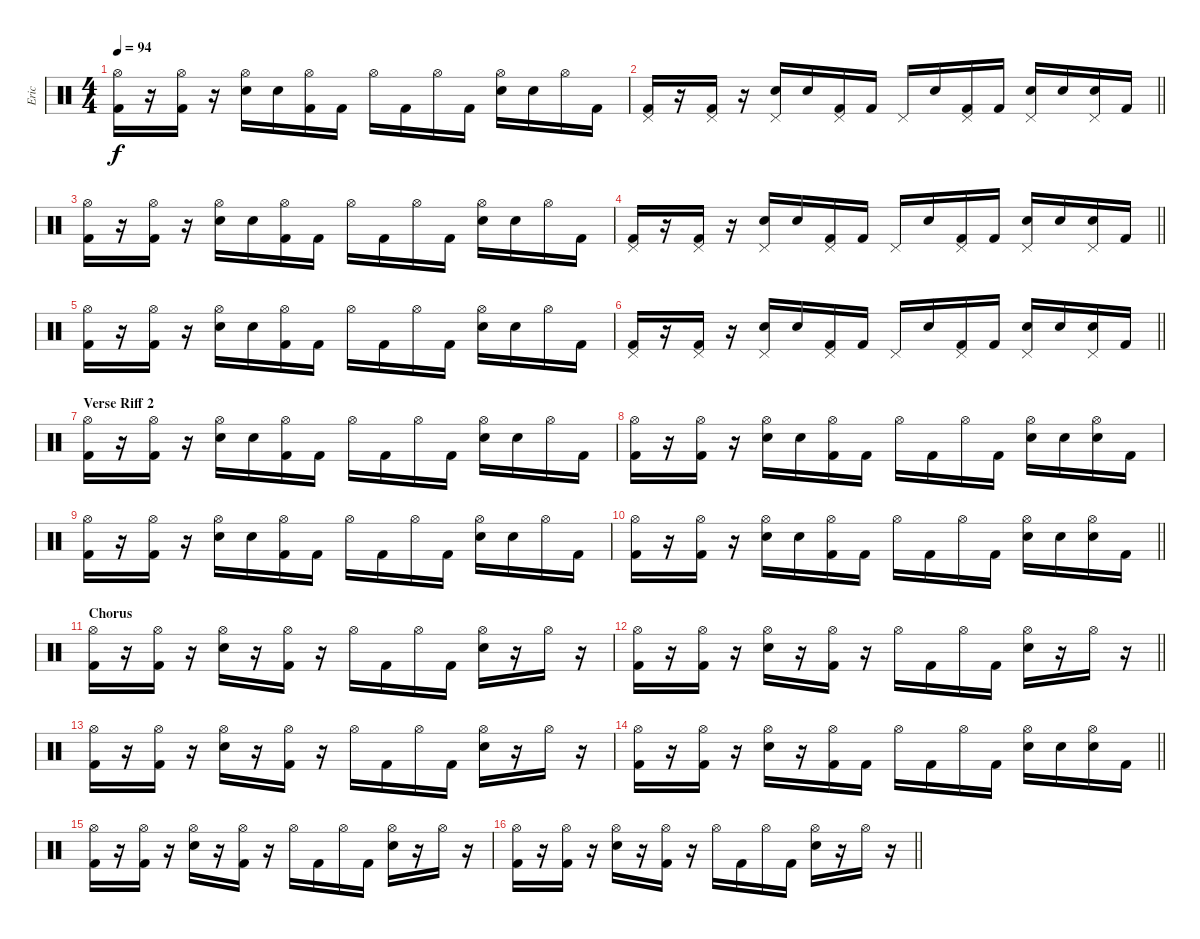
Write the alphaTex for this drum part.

\track ("Eric" "Eric") {instrument percussion}
\staff {score}
\articulation defaults
\ts (4 4)
\tempo 94
\clef neutral
\ks c
("Hi-Hat (open)" "Kick (hit) 2").16{dy f} r.16 ("Hi-Hat (open)" "Kick (hit) 2").16 r.16 ("Hi-Hat (open)" "Electric Snare (hit)").16 "Electric Snare (hit)".16 ("Hi-Hat (open)" "Kick (hit) 2").16 "Kick (hit) 2".16 "Hi-Hat (open)".16 "Kick (hit) 2".16 "Hi-Hat (open)".16 "Kick (hit) 2".16 ("Hi-Hat (open)" "Electric Snare (hit)").16 "Electric Snare (hit)".16 "Hi-Hat (open)".16 "Kick (hit) 2".16 |
\barLineRight lightlight
("Pedal Hi-Hat (hit)" "Kick (hit) 2").16 r.16 ("Pedal Hi-Hat (hit)" "Kick (hit) 2").16 r.16 ("Pedal Hi-Hat (hit)" "Electric Snare (hit)").16 "Electric Snare (hit)".16 ("Pedal Hi-Hat (hit)" "Kick (hit) 2").16 "Kick (hit) 2".16 "Pedal Hi-Hat (hit)".16 "Electric Snare (hit)".16 ("Pedal Hi-Hat (hit)" "Kick (hit) 2").16 "Kick (hit) 2".16 ("Pedal Hi-Hat (hit)" "Electric Snare (hit)").16 "Electric Snare (hit)".16 ("Pedal Hi-Hat (hit)" "Electric Snare (hit)").16 "Kick (hit) 2".16 |
("Hi-Hat (open)" "Kick (hit) 2").16 r.16 ("Hi-Hat (open)" "Kick (hit) 2").16 r.16 ("Hi-Hat (open)" "Electric Snare (hit)").16 "Electric Snare (hit)".16 ("Hi-Hat (open)" "Kick (hit) 2").16 "Kick (hit) 2".16 "Hi-Hat (open)".16 "Kick (hit) 2".16 "Hi-Hat (open)".16 "Kick (hit) 2".16 ("Hi-Hat (open)" "Electric Snare (hit)").16 "Electric Snare (hit)".16 "Hi-Hat (open)".16 "Kick (hit) 2".16 |
\barLineRight lightlight
("Pedal Hi-Hat (hit)" "Kick (hit) 2").16 r.16 ("Pedal Hi-Hat (hit)" "Kick (hit) 2").16 r.16 ("Pedal Hi-Hat (hit)" "Electric Snare (hit)").16 "Electric Snare (hit)".16 ("Pedal Hi-Hat (hit)" "Kick (hit) 2").16 "Kick (hit) 2".16 "Pedal Hi-Hat (hit)".16 "Electric Snare (hit)".16 ("Pedal Hi-Hat (hit)" "Kick (hit) 2").16 "Kick (hit) 2".16 ("Pedal Hi-Hat (hit)" "Electric Snare (hit)").16 "Electric Snare (hit)".16 ("Pedal Hi-Hat (hit)" "Electric Snare (hit)").16 "Kick (hit) 2".16 |
("Hi-Hat (open)" "Kick (hit) 2").16 r.16 ("Hi-Hat (open)" "Kick (hit) 2").16 r.16 ("Hi-Hat (open)" "Electric Snare (hit)").16 "Electric Snare (hit)".16 ("Hi-Hat (open)" "Kick (hit) 2").16 "Kick (hit) 2".16 "Hi-Hat (open)".16 "Kick (hit) 2".16 "Hi-Hat (open)".16 "Kick (hit) 2".16 ("Hi-Hat (open)" "Electric Snare (hit)").16 "Electric Snare (hit)".16 "Hi-Hat (open)".16 "Kick (hit) 2".16 |
\barLineRight lightlight
("Pedal Hi-Hat (hit)" "Kick (hit) 2").16 r.16 ("Pedal Hi-Hat (hit)" "Kick (hit) 2").16 r.16 ("Pedal Hi-Hat (hit)" "Electric Snare (hit)").16 "Electric Snare (hit)".16 ("Pedal Hi-Hat (hit)" "Kick (hit) 2").16 "Kick (hit) 2".16 "Pedal Hi-Hat (hit)".16 "Electric Snare (hit)".16 ("Pedal Hi-Hat (hit)" "Kick (hit) 2").16 "Kick (hit) 2".16 ("Pedal Hi-Hat (hit)" "Electric Snare (hit)").16 "Electric Snare (hit)".16 ("Pedal Hi-Hat (hit)" "Electric Snare (hit)").16 "Kick (hit) 2".16 |
\section ("" "Verse Riff 2")
("Hi-Hat (open)" "Kick (hit) 2").16 r.16 ("Hi-Hat (open)" "Kick (hit) 2").16 r.16 ("Hi-Hat (open)" "Electric Snare (hit)").16 "Electric Snare (hit)".16 ("Hi-Hat (open)" "Kick (hit) 2").16 "Kick (hit) 2".16 "Hi-Hat (open)".16 "Kick (hit) 2".16 "Hi-Hat (open)".16 "Kick (hit) 2".16 ("Hi-Hat (open)" "Electric Snare (hit)").16 "Electric Snare (hit)".16 "Hi-Hat (open)".16 "Kick (hit) 2".16 |
("Hi-Hat (open)" "Kick (hit) 2").16 r.16 ("Hi-Hat (open)" "Kick (hit) 2").16 r.16 ("Hi-Hat (open)" "Electric Snare (hit)").16 "Electric Snare (hit)".16 ("Hi-Hat (open)" "Kick (hit) 2").16 "Kick (hit) 2".16 "Hi-Hat (open)".16 "Kick (hit) 2".16 "Hi-Hat (open)".16 "Kick (hit) 2".16 ("Hi-Hat (open)" "Electric Snare (hit)").16 "Electric Snare (hit)".16 ("Hi-Hat (open)" "Electric Snare (hit)").16 "Kick (hit) 2".16 |
("Hi-Hat (open)" "Kick (hit) 2").16 r.16 ("Hi-Hat (open)" "Kick (hit) 2").16 r.16 ("Hi-Hat (open)" "Electric Snare (hit)").16 "Electric Snare (hit)".16 ("Hi-Hat (open)" "Kick (hit) 2").16 "Kick (hit) 2".16 "Hi-Hat (open)".16 "Kick (hit) 2".16 "Hi-Hat (open)".16 "Kick (hit) 2".16 ("Hi-Hat (open)" "Electric Snare (hit)").16 "Electric Snare (hit)".16 "Hi-Hat (open)".16 "Kick (hit) 2".16 |
\barLineRight lightlight
("Hi-Hat (open)" "Kick (hit) 2").16 r.16 ("Hi-Hat (open)" "Kick (hit) 2").16 r.16 ("Hi-Hat (open)" "Electric Snare (hit)").16 "Electric Snare (hit)".16 ("Hi-Hat (open)" "Kick (hit) 2").16 "Kick (hit) 2".16 "Hi-Hat (open)".16 "Kick (hit) 2".16 "Hi-Hat (open)".16 "Kick (hit) 2".16 ("Hi-Hat (open)" "Electric Snare (hit)").16 "Electric Snare (hit)".16 ("Hi-Hat (open)" "Electric Snare (hit)").16 "Kick (hit) 2".16 |
\section ("" "Chorus")
("Hi-Hat (open)" "Kick (hit) 2").16 r.16 ("Hi-Hat (open)" "Kick (hit) 2").16 r.16 ("Hi-Hat (open)" "Electric Snare (hit)").16 r.16 ("Hi-Hat (open)" "Kick (hit) 2").16 r.16 "Hi-Hat (open)".16 "Kick (hit) 2".16 "Hi-Hat (open)".16 "Kick (hit) 2".16 ("Hi-Hat (open)" "Electric Snare (hit)").16 r.16 "Hi-Hat (open)".16 r.16 |
\barLineRight lightlight
("Hi-Hat (open)" "Kick (hit) 2").16 r.16 ("Hi-Hat (open)" "Kick (hit) 2").16 r.16 ("Hi-Hat (open)" "Electric Snare (hit)").16 r.16 ("Hi-Hat (open)" "Kick (hit) 2").16 r.16 "Hi-Hat (open)".16 "Kick (hit) 2".16 "Hi-Hat (open)".16 "Kick (hit) 2".16 ("Hi-Hat (open)" "Electric Snare (hit)").16 r.16 "Hi-Hat (open)".16 r.16 |
("Hi-Hat (open)" "Kick (hit) 2").16 r.16 ("Hi-Hat (open)" "Kick (hit) 2").16 r.16 ("Hi-Hat (open)" "Electric Snare (hit)").16 r.16 ("Hi-Hat (open)" "Kick (hit) 2").16 r.16 "Hi-Hat (open)".16 "Kick (hit) 2".16 "Hi-Hat (open)".16 "Kick (hit) 2".16 ("Hi-Hat (open)" "Electric Snare (hit)").16 r.16 "Hi-Hat (open)".16 r.16 |
\barLineRight lightlight
("Hi-Hat (open)" "Kick (hit) 2").16 r.16 ("Hi-Hat (open)" "Kick (hit) 2").16 r.16 ("Hi-Hat (open)" "Electric Snare (hit)").16 r.16 ("Hi-Hat (open)" "Kick (hit) 2").16 "Kick (hit) 2".16 "Hi-Hat (open)".16 "Kick (hit) 2".16 "Hi-Hat (open)".16 "Kick (hit) 2".16 ("Hi-Hat (open)" "Electric Snare (hit)").16 "Electric Snare (hit)".16 ("Hi-Hat (open)" "Electric Snare (hit)").16 "Kick (hit) 2".16 |
("Hi-Hat (open)" "Kick (hit) 2").16 r.16 ("Hi-Hat (open)" "Kick (hit) 2").16 r.16 ("Hi-Hat (open)" "Electric Snare (hit)").16 r.16 ("Hi-Hat (open)" "Kick (hit) 2").16 r.16 "Hi-Hat (open)".16 "Kick (hit) 2".16 "Hi-Hat (open)".16 "Kick (hit) 2".16 ("Hi-Hat (open)" "Electric Snare (hit)").16 r.16 "Hi-Hat (open)".16 r.16 |
\barLineRight lightlight
("Hi-Hat (open)" "Kick (hit) 2").16 r.16 ("Hi-Hat (open)" "Kick (hit) 2").16 r.16 ("Hi-Hat (open)" "Electric Snare (hit)").16 r.16 ("Hi-Hat (open)" "Kick (hit) 2").16 r.16 "Hi-Hat (open)".16 "Kick (hit) 2".16 "Hi-Hat (open)".16 "Kick (hit) 2".16 ("Hi-Hat (open)" "Electric Snare (hit)").16 r.16 "Hi-Hat (open)".16 r.16
